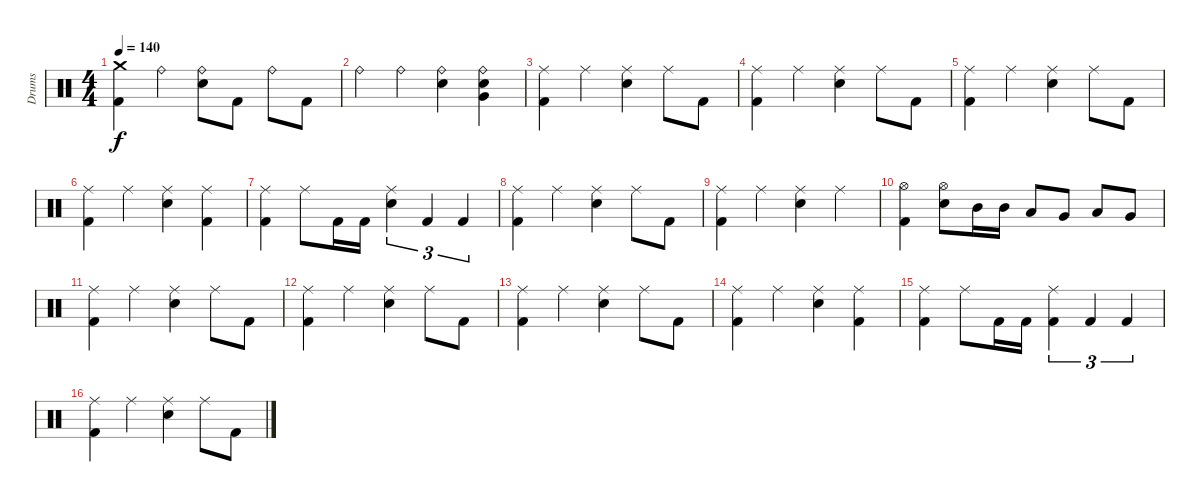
\track ("Drums" "Drums") {instrument percussion}
\staff {score}
\articulation defaults
\ts (4 4)
\tempo 140
\clef neutral
\ks c
("Crash medium (hit)" "Kick (hit) 2").4{dy f} "Ride (bell)".4 ("Ride (bell)" "Electric Snare (hit)").8 "Kick (hit) 2".8 "Ride (bell)".8 "Kick (hit) 2".8 |
"Ride (bell)".4 "Ride (bell)".4 ("Ride (bell)" "Electric Snare (hit)").4 ("Ride (bell)" "Electric Snare (hit)" "Very Low Tom (hit)").4 |
("Ride (middle)" "Kick (hit) 2").4 "Ride (middle)".4 ("Ride (middle)" "Electric Snare (hit)").4 "Ride (middle)".8 "Kick (hit) 2".8 |
("Ride (middle)" "Kick (hit) 2").4 "Ride (middle)".4 ("Ride (middle)" "Electric Snare (hit)").4 "Ride (middle)".8 "Kick (hit) 2".8 |
("Ride (middle)" "Kick (hit) 2").4 "Ride (middle)".4 ("Ride (middle)" "Electric Snare (hit)").4 "Ride (middle)".8 "Kick (hit) 2".8 |
("Ride (middle)" "Kick (hit) 2").4 "Ride (middle)".4 ("Ride (middle)" "Electric Snare (hit)").4 ("Ride (middle)" "Kick (hit) 2").4 |
("Ride (middle)" "Kick (hit) 2").4 "Ride (middle)".8 "Kick (hit) 2".16 "Kick (hit) 2".16 ("Ride (middle)" "Electric Snare (hit)").4{tu (3 2)} "Kick (hit) 2".4{tu (3 2)} "Kick (hit) 2".4{tu (3 2)} |
("Ride (middle)" "Kick (hit) 2").4 "Ride (middle)".4 ("Ride (middle)" "Electric Snare (hit)").4 "Ride (middle)".8 "Kick (hit) 2".8 |
("Ride (middle)" "Kick (hit) 2").4 "Ride (middle)".4 ("Ride (middle)" "Electric Snare (hit)").4 "Ride (middle)".4 |
("Hi-Hat (open)" "Kick (hit) 2").4 ("Hi-Hat (open)" "Electric Snare (hit)").8 "Mid Tom (hit)".16 "Mid Tom (hit)".16 "Low Tom (hit)".8 "Very Low Tom (hit)".8 "Low Tom (hit)".8 "Very Low Tom (hit)".8 |
("Ride (middle)" "Kick (hit) 2").4 "Ride (middle)".4 ("Ride (middle)" "Electric Snare (hit)").4 "Ride (middle)".8 "Kick (hit) 2".8 |
("Ride (middle)" "Kick (hit) 2").4 "Ride (middle)".4 ("Ride (middle)" "Electric Snare (hit)").4 "Ride (middle)".8 "Kick (hit) 2".8 |
("Ride (middle)" "Kick (hit) 2").4 "Ride (middle)".4 ("Ride (middle)" "Electric Snare (hit)").4 "Ride (middle)".8 "Kick (hit) 2".8 |
("Ride (middle)" "Kick (hit) 2").4 "Ride (middle)".4 ("Ride (middle)" "Electric Snare (hit)").4 ("Ride (middle)" "Kick (hit) 2").4 |
("Ride (middle)" "Kick (hit) 2").4 "Ride (middle)".8 "Kick (hit) 2".16 "Kick (hit) 2".16 ("Ride (middle)" "Kick (hit) 2").4{tu (3 2)} "Kick (hit) 2".4{tu (3 2)} "Kick (hit) 2".4{tu (3 2)} |
("Ride (middle)" "Kick (hit) 2").4 "Ride (middle)".4 ("Ride (middle)" "Electric Snare (hit)").4 "Ride (middle)".8 "Kick (hit) 2".8
